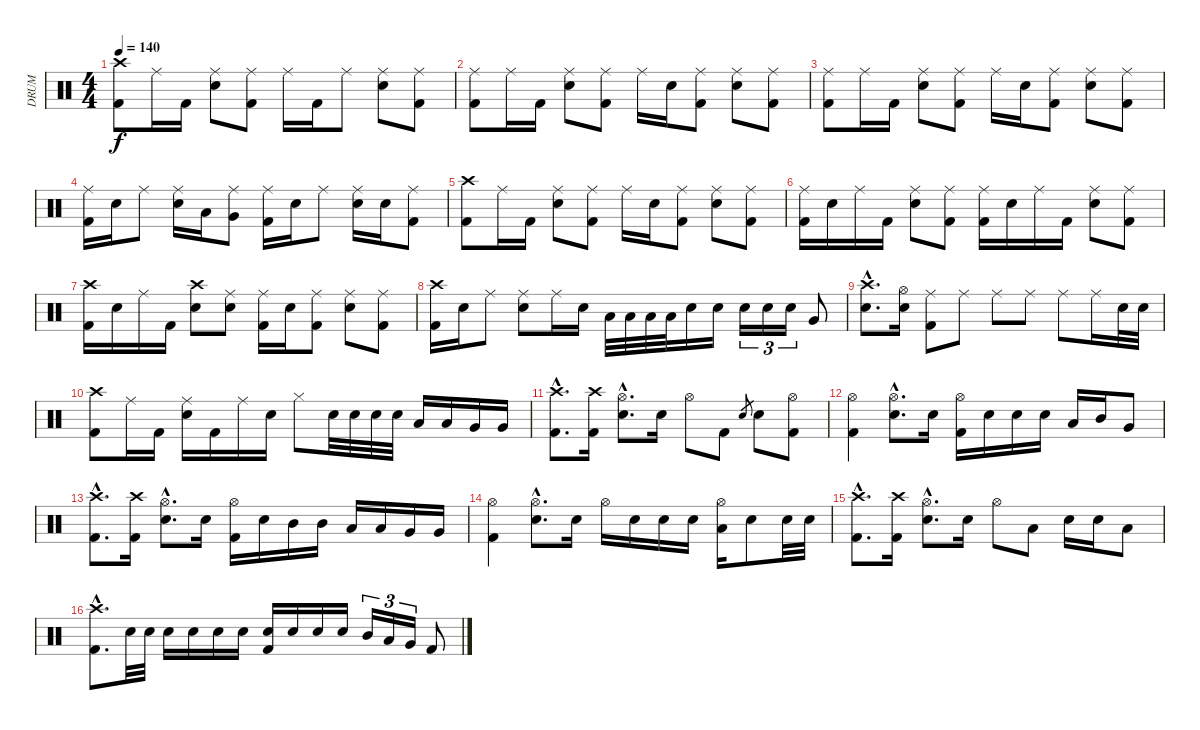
\track ("DRUM" "DRUM") {instrument percussion}
\staff {score}
\articulation defaults
\ts (4 4)
\tempo 140
\clef neutral
\ks c
("Crash high (hit)" "Kick (hit) 2").8{dy f} "Ride (middle)".16 "Kick (hit) 2".16 ("Ride (middle)" "Electric Snare (hit)").8 ("Ride (middle)" "Kick (hit) 2").8 "Ride (middle)".16 "Kick (hit) 2".16 "Ride (middle)".8 ("Ride (middle)" "Electric Snare (hit)").8 ("Ride (middle)" "Kick (hit) 2").8 |
("Ride (middle)" "Kick (hit) 2").8 "Ride (middle)".16 "Kick (hit) 2".16 ("Ride (middle)" "Electric Snare (hit)").8 ("Ride (middle)" "Kick (hit) 2").8 "Ride (middle)".16 "Electric Snare (hit)".16 ("Ride (middle)" "Kick (hit) 2").8 ("Ride (middle)" "Electric Snare (hit)").8 ("Ride (middle)" "Kick (hit) 2").8 |
("Ride (middle)" "Kick (hit) 2").8 "Ride (middle)".16 "Kick (hit) 2".16 ("Ride (middle)" "Electric Snare (hit)").8 ("Ride (middle)" "Kick (hit) 2").8 "Ride (middle)".16 "Electric Snare (hit)".16 ("Ride (middle)" "Kick (hit) 2").8 ("Ride (middle)" "Electric Snare (hit)").8 ("Ride (middle)" "Kick (hit) 2").8 |
("Ride (middle)" "Kick (hit) 2").16 "Electric Snare (hit)".16 "Ride (middle)".8 ("Ride (middle)" "Electric Snare (hit)").16 "Low Tom (hit)".16 ("Ride (middle)" "Very Low Tom (hit)").8 ("Ride (middle)" "Kick (hit) 2").16 "Electric Snare (hit)".16 "Ride (middle)".8 ("Ride (middle)" "Electric Snare (hit)").16 "Electric Snare (hit)".16 ("Ride (middle)" "Kick (hit) 2").8 |
("Crash high (hit)" "Kick (hit) 2").8 "Ride (middle)".16 "Kick (hit) 2".16 ("Ride (middle)" "Electric Snare (hit)").8 ("Ride (middle)" "Kick (hit) 2").8 "Ride (middle)".16 "Electric Snare (hit)".16 ("Ride (middle)" "Kick (hit) 2").8 ("Ride (middle)" "Electric Snare (hit)").8 ("Ride (middle)" "Kick (hit) 2").8 |
("Ride (middle)" "Kick (hit) 2").16 "Electric Snare (hit)".16 "Ride (middle)".16 "Kick (hit) 2".16 ("Ride (middle)" "Electric Snare (hit)").8 ("Ride (middle)" "Kick (hit) 2").8 ("Ride (middle)" "Kick (hit) 2").16 "Electric Snare (hit)".16 "Ride (middle)".16 "Kick (hit) 2".16 ("Ride (middle)" "Electric Snare (hit)").8 ("Ride (middle)" "Kick (hit) 2").8 |
("Crash high (hit)" "Kick (hit) 2").16 "Electric Snare (hit)".16 "Ride (middle)".16 "Kick (hit) 2".16 ("Crash high (hit)" "Electric Snare (hit)").8 ("Ride (middle)" "Electric Snare (hit)").8 ("Ride (middle)" "Kick (hit) 2").16 "Electric Snare (hit)".16 ("Ride (middle)" "Kick (hit) 2").8 ("Ride (middle)" "Electric Snare (hit)").8 ("Ride (middle)" "Kick (hit) 2").8 |
("Crash high (hit)" "Kick (hit) 2").16 "Electric Snare (hit)".16 "Ride (middle)".8 ("Ride (middle)" "Electric Snare (hit)").8 "Ride (middle)".16 "Electric Snare (hit)".16 "Low Tom (hit)".32 "Low Tom (hit)".32 "Low Tom (hit)".32 "Low Tom (hit)".32 "Electric Snare (hit)".16 "Electric Snare (hit)".16 "Electric Snare (hit)".16{tu (3 2)} "Electric Snare (hit)".16{tu (3 2)} "Electric Snare (hit)".16{tu (3 2)} "Very Low Tom (hit)".8 |
("Crash high (hit)"{hac} "Electric Snare (hit)"{hac}).8{d} ("Hi-Hat (open)" "Electric Snare (hit)").16 ("Ride (middle)" "Kick (hit) 2").8 "Ride (middle)".8 "Ride (middle)".8 "Ride (middle)".8 "Ride (middle)".8 "Ride (middle)".16 "Electric Snare (hit)".32 "Electric Snare (hit)".32 |
("Crash high (hit)" "Kick (hit) 2").8 "Ride (middle)".16 "Kick (hit) 2".16 ("Ride (middle)" "Electric Snare (hit)").16 "Kick (hit) 2".16 "Ride (middle)".16 "Electric Snare (hit)".16 "Hi-Hat (closed)".8 "Electric Snare (hit)".32 "Electric Snare (hit)".32 "Electric Snare (hit)".32 "Electric Snare (hit)".32 "Low Tom (hit)".16 "Low Tom (hit)".16 "Very Low Tom (hit)".16 "Very Low Tom (hit)".16 |
("Crash high (hit)"{hac} "Kick (hit) 2"{hac}).8{d} ("Crash high (hit)" "Kick (hit) 2").16 ("Hi-Hat (open)"{hac} "Electric Snare (hit)"{hac}).8{d} "Electric Snare (hit)".16 "Hi-Hat (open)".8 "Kick (hit) 2".8 "Electric Snare (hit)".8{gr} "Electric Snare (hit)".8 ("Hi-Hat (open)" "Kick (hit) 2").8 |
("Hi-Hat (open)" "Kick (hit) 2").4 ("Hi-Hat (open)"{hac} "Electric Snare (hit)"{hac}).8{d} "Electric Snare (hit)".16 ("Hi-Hat (open)" "Kick (hit) 2").16 "Electric Snare (hit)".16 "Electric Snare (hit)".16 "Electric Snare (hit)".16 "Low Tom (hit)".16 "Mid Tom (hit)".16 "Very Low Tom (hit)".8 |
("Crash high (hit)"{hac} "Kick (hit) 2"{hac}).8{d} ("Crash high (hit)" "Kick (hit) 2").16 ("Hi-Hat (open)"{hac} "Electric Snare (hit)"{hac}).8{d} "Electric Snare (hit)".16 ("Hi-Hat (open)" "Kick (hit) 2").16 "Electric Snare (hit)".16 "Mid Tom (hit)".16 "Mid Tom (hit)".16 "Low Tom (hit)".16 "Low Tom (hit)".16 "Very Low Tom (hit)".16 "Very Low Tom (hit)".16 |
("Hi-Hat (open)" "Kick (hit) 2").4 ("Hi-Hat (open)"{hac} "Electric Snare (hit)"{hac}).8{d} "Electric Snare (hit)".16 "Hi-Hat (open)".16 "Electric Snare (hit)".16 "Electric Snare (hit)".16 "Electric Snare (hit)".16 ("Hi-Hat (open)" "Low Tom (hit)").16 "Electric Snare (hit)".8 "Electric Snare (hit)".32 "Electric Snare (hit)".32 |
("Crash high (hit)"{hac} "Kick (hit) 2"{hac}).8{d} ("Crash high (hit)" "Kick (hit) 2").16 ("Hi-Hat (open)"{hac} "Electric Snare (hit)"{hac}).8{d} "Electric Snare (hit)".16 "Hi-Hat (open)".8 "Low Tom (hit)".8 "Electric Snare (hit)".16 "Electric Snare (hit)".16 "Low Tom (hit)".8 |
("Crash high (hit)"{hac} "Kick (hit) 2"{hac}).8{d} "Electric Snare (hit)".32 "Electric Snare (hit)".32 "Electric Snare (hit)".16 "Electric Snare (hit)".16 "Electric Snare (hit)".16 "Electric Snare (hit)".16 ("Electric Snare (hit)" "Kick (hit) 2").16 "Electric Snare (hit)".16 "Electric Snare (hit)".16 "Electric Snare (hit)".16 "Mid Tom (hit)".16{tu (3 2)} "Low Tom (hit)".16{tu (3 2)} "Very Low Tom (hit)".16{tu (3 2)} "Kick (hit) 2".8
